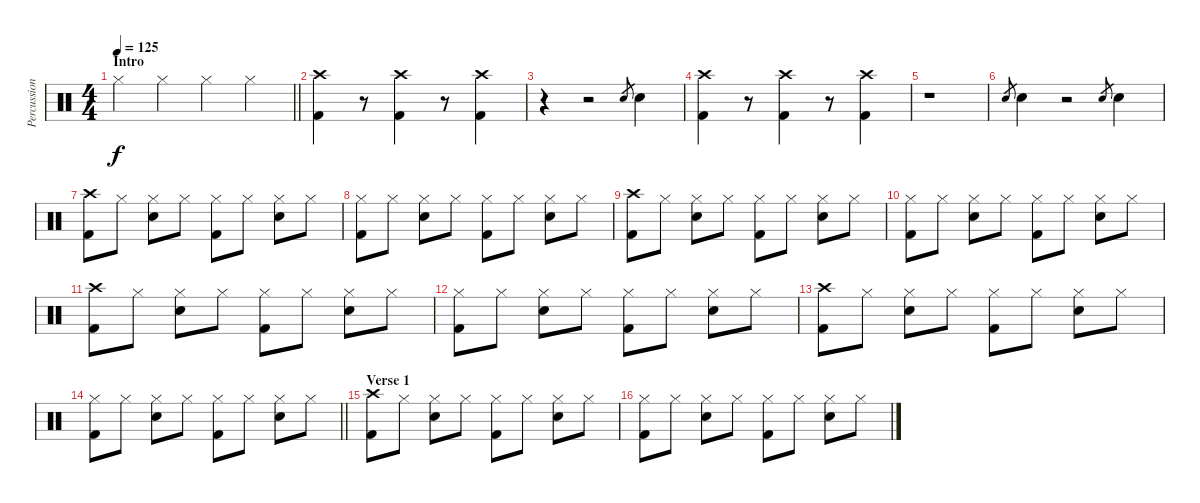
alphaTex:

\track ("Percussions" "Percussion") {instrument percussion}
\staff {score}
\articulation defaults
\ts (4 4)
\section ("" "Intro")
\tempo 125
\clef neutral
\barLineRight lightlight
\ks c "Hi-Hat (closed)".4{dy f} "Hi-Hat (closed)".4 "Hi-Hat (closed)".4 "Hi-Hat (closed)".4
|
("Crash high (hit)" "Kick (hit) 2").4 r.8 ("Crash high (hit)" "Kick (hit) 2").4 r.8 ("Crash high (hit)" "Kick (hit) 2").4 |
r.4 r.2 "Snare (hit) 2".8{gr} "Snare (hit) 2".4 |
("Crash high (hit)" "Kick (hit) 2").4 r.8 ("Crash high (hit)" "Kick (hit) 2").4 r.8 ("Crash high (hit)" "Kick (hit) 2").4 |
r.1 |
"Snare (hit) 2".8{gr} "Snare (hit) 2".4 r.2 "Snare (hit) 2".8{gr} "Snare (hit) 2".4 |
("Crash high (hit)" "Kick (hit) 2").8 "Hi-Hat (closed)".8 ("Hi-Hat (closed)" "Snare (hit) 2").8 "Hi-Hat (closed)".8 ("Hi-Hat (closed)" "Kick (hit) 2").8 "Hi-Hat (closed)".8 ("Hi-Hat (closed)" "Snare (hit) 2").8 "Hi-Hat (closed)".8 |
("Hi-Hat (closed)" "Kick (hit) 2").8 "Hi-Hat (closed)".8 ("Hi-Hat (closed)" "Snare (hit) 2").8 "Hi-Hat (closed)".8 ("Hi-Hat (closed)" "Kick (hit) 2").8 "Hi-Hat (closed)".8 ("Hi-Hat (closed)" "Snare (hit) 2").8 "Hi-Hat (closed)".8 |
("Crash high (hit)" "Kick (hit) 2").8 "Hi-Hat (closed)".8 ("Hi-Hat (closed)" "Snare (hit) 2").8 "Hi-Hat (closed)".8 ("Hi-Hat (closed)" "Kick (hit) 2").8 "Hi-Hat (closed)".8 ("Hi-Hat (closed)" "Snare (hit) 2").8 "Hi-Hat (closed)".8 |
("Hi-Hat (closed)" "Kick (hit) 2").8 "Hi-Hat (closed)".8 ("Hi-Hat (closed)" "Snare (hit) 2").8 "Hi-Hat (closed)".8 ("Hi-Hat (closed)" "Kick (hit) 2").8 "Hi-Hat (closed)".8 ("Hi-Hat (closed)" "Snare (hit) 2").8 "Hi-Hat (closed)".8 |
("Crash high (hit)" "Kick (hit) 2").8 "Hi-Hat (closed)".8 ("Hi-Hat (closed)" "Snare (hit) 2").8 "Hi-Hat (closed)".8 ("Hi-Hat (closed)" "Kick (hit) 2").8 "Hi-Hat (closed)".8 ("Hi-Hat (closed)" "Snare (hit) 2").8 "Hi-Hat (closed)".8 |
("Hi-Hat (closed)" "Kick (hit) 2").8 "Hi-Hat (closed)".8 ("Hi-Hat (closed)" "Snare (hit) 2").8 "Hi-Hat (closed)".8 ("Hi-Hat (closed)" "Kick (hit) 2").8 "Hi-Hat (closed)".8 ("Hi-Hat (closed)" "Snare (hit) 2").8 "Hi-Hat (closed)".8 |
("Crash high (hit)" "Kick (hit) 2").8 "Hi-Hat (closed)".8 ("Hi-Hat (closed)" "Snare (hit) 2").8 "Hi-Hat (closed)".8 ("Hi-Hat (closed)" "Kick (hit) 2").8 "Hi-Hat (closed)".8 ("Hi-Hat (closed)" "Snare (hit) 2").8 "Hi-Hat (closed)".8 |
\barLineRight lightlight
("Hi-Hat (closed)" "Kick (hit) 2").8 "Hi-Hat (closed)".8 ("Hi-Hat (closed)" "Snare (hit) 2").8 "Hi-Hat (closed)".8 ("Hi-Hat (closed)" "Kick (hit) 2").8 "Hi-Hat (closed)".8 ("Hi-Hat (closed)" "Snare (hit) 2").8 "Hi-Hat (closed)".8 |
\section ("" "Verse 1")
("Crash high (hit)" "Kick (hit) 2").8 "Hi-Hat (closed)".8 ("Hi-Hat (closed)" "Snare (hit) 2").8 "Hi-Hat (closed)".8 ("Hi-Hat (closed)" "Kick (hit) 2").8 "Hi-Hat (closed)".8 ("Hi-Hat (closed)" "Snare (hit) 2").8 "Hi-Hat (closed)".8 |
("Hi-Hat (closed)" "Kick (hit) 2").8 "Hi-Hat (closed)".8 ("Hi-Hat (closed)" "Snare (hit) 2").8 "Hi-Hat (closed)".8 ("Hi-Hat (closed)" "Kick (hit) 2").8 "Hi-Hat (closed)".8 ("Hi-Hat (closed)" "Snare (hit) 2").8 "Hi-Hat (closed)".8
